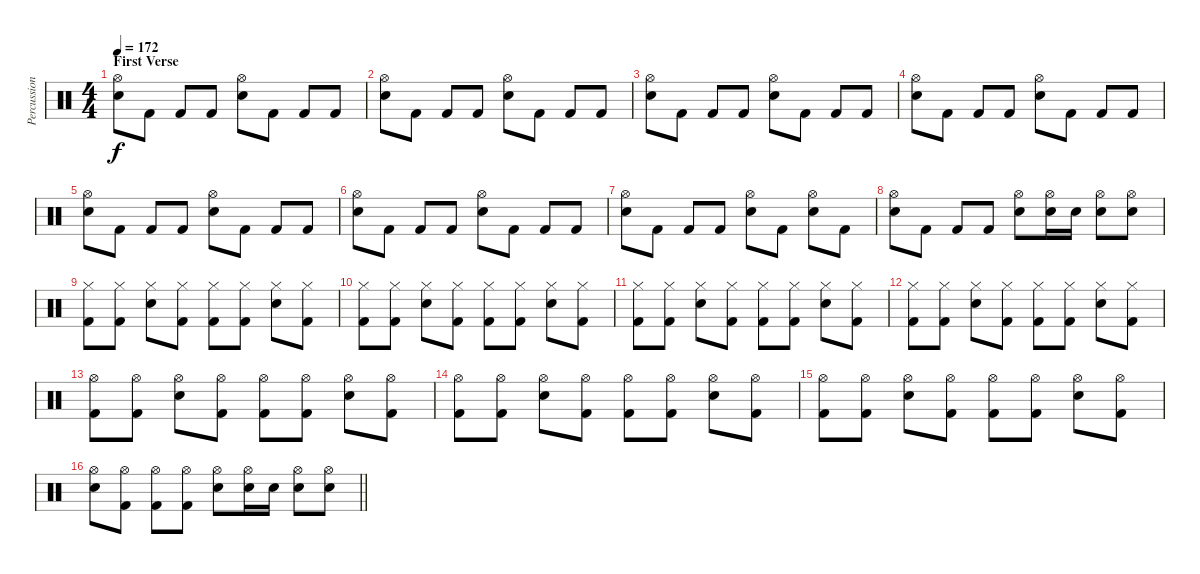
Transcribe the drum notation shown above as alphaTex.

\track ("Percussion" "Percussion") {instrument percussion}
\staff {score}
\articulation defaults
\ts (4 4)
\section ("" "First Verse")
\tempo 172
\clef neutral
\ks c
("Hi-Hat (open)" "Electric Snare (hit)").8{dy f} "Kick (hit) 2".8 "Kick (hit) 2".8 "Kick (hit) 2".8 ("Hi-Hat (open)" "Electric Snare (hit)").8 "Kick (hit) 2".8 "Kick (hit) 2".8 "Kick (hit) 2".8 |
("Hi-Hat (open)" "Electric Snare (hit)").8 "Kick (hit) 2".8 "Kick (hit) 2".8 "Kick (hit) 2".8 ("Hi-Hat (open)" "Electric Snare (hit)").8 "Kick (hit) 2".8 "Kick (hit) 2".8 "Kick (hit) 2".8 |
("Hi-Hat (open)" "Electric Snare (hit)").8 "Kick (hit) 2".8 "Kick (hit) 2".8 "Kick (hit) 2".8 ("Hi-Hat (open)" "Electric Snare (hit)").8 "Kick (hit) 2".8 "Kick (hit) 2".8 "Kick (hit) 2".8 |
("Hi-Hat (open)" "Electric Snare (hit)").8 "Kick (hit) 2".8 "Kick (hit) 2".8 "Kick (hit) 2".8 ("Hi-Hat (open)" "Electric Snare (hit)").8 "Kick (hit) 2".8 "Kick (hit) 2".8 "Kick (hit) 2".8 |
("Hi-Hat (open)" "Electric Snare (hit)").8 "Kick (hit) 2".8 "Kick (hit) 2".8 "Kick (hit) 2".8 ("Hi-Hat (open)" "Electric Snare (hit)").8 "Kick (hit) 2".8 "Kick (hit) 2".8 "Kick (hit) 2".8 |
("Hi-Hat (open)" "Electric Snare (hit)").8 "Kick (hit) 2".8 "Kick (hit) 2".8 "Kick (hit) 2".8 ("Hi-Hat (open)" "Electric Snare (hit)").8 "Kick (hit) 2".8 "Kick (hit) 2".8 "Kick (hit) 2".8 |
("Hi-Hat (open)" "Electric Snare (hit)").8 "Kick (hit) 2".8 "Kick (hit) 2".8 "Kick (hit) 2".8 ("Hi-Hat (open)" "Electric Snare (hit)").8 "Kick (hit) 2".8 ("Hi-Hat (open)" "Electric Snare (hit)").8 "Kick (hit) 2".8 |
("Hi-Hat (open)" "Electric Snare (hit)").8 "Kick (hit) 2".8 "Kick (hit) 2".8 "Kick (hit) 2".8 ("Hi-Hat (open)" "Electric Snare (hit)").8 ("Hi-Hat (open)" "Electric Snare (hit)").16 "Electric Snare (hit)".16 ("Hi-Hat (open)" "Electric Snare (hit)").8 ("Hi-Hat (open)" "Electric Snare (hit)").8 |
("Hi-Hat (closed)" "Kick (hit) 2").8 ("Hi-Hat (closed)" "Kick (hit) 2").8 ("Hi-Hat (closed)" "Electric Snare (hit)").8 ("Hi-Hat (closed)" "Kick (hit) 2").8 ("Hi-Hat (closed)" "Kick (hit) 2").8 ("Hi-Hat (closed)" "Kick (hit) 2").8 ("Hi-Hat (closed)" "Electric Snare (hit)").8 ("Hi-Hat (closed)" "Kick (hit) 2").8 |
("Hi-Hat (closed)" "Kick (hit) 2").8 ("Hi-Hat (closed)" "Kick (hit) 2").8 ("Hi-Hat (closed)" "Electric Snare (hit)").8 ("Hi-Hat (closed)" "Kick (hit) 2").8 ("Hi-Hat (closed)" "Kick (hit) 2").8 ("Hi-Hat (closed)" "Kick (hit) 2").8 ("Hi-Hat (closed)" "Electric Snare (hit)").8 ("Hi-Hat (closed)" "Kick (hit) 2").8 |
("Hi-Hat (closed)" "Kick (hit) 2").8 ("Hi-Hat (closed)" "Kick (hit) 2").8 ("Hi-Hat (closed)" "Electric Snare (hit)").8 ("Hi-Hat (closed)" "Kick (hit) 2").8 ("Hi-Hat (closed)" "Kick (hit) 2").8 ("Hi-Hat (closed)" "Kick (hit) 2").8 ("Hi-Hat (closed)" "Electric Snare (hit)").8 ("Hi-Hat (closed)" "Kick (hit) 2").8 |
("Hi-Hat (closed)" "Kick (hit) 2").8 ("Hi-Hat (closed)" "Kick (hit) 2").8 ("Hi-Hat (closed)" "Electric Snare (hit)").8 ("Hi-Hat (closed)" "Kick (hit) 2").8 ("Hi-Hat (closed)" "Kick (hit) 2").8 ("Hi-Hat (closed)" "Kick (hit) 2").8 ("Hi-Hat (closed)" "Electric Snare (hit)").8 ("Hi-Hat (closed)" "Kick (hit) 2").8 |
("Hi-Hat (open)" "Kick (hit) 2").8 ("Hi-Hat (open)" "Kick (hit) 2").8 ("Hi-Hat (open)" "Electric Snare (hit)").8 ("Hi-Hat (open)" "Kick (hit) 2").8 ("Hi-Hat (open)" "Kick (hit) 2").8 ("Hi-Hat (open)" "Kick (hit) 2").8 ("Hi-Hat (open)" "Electric Snare (hit)").8 ("Hi-Hat (open)" "Kick (hit) 2").8 |
("Hi-Hat (open)" "Kick (hit) 2").8 ("Hi-Hat (open)" "Kick (hit) 2").8 ("Hi-Hat (open)" "Electric Snare (hit)").8 ("Hi-Hat (open)" "Kick (hit) 2").8 ("Hi-Hat (open)" "Kick (hit) 2").8 ("Hi-Hat (open)" "Kick (hit) 2").8 ("Hi-Hat (open)" "Electric Snare (hit)").8 ("Hi-Hat (open)" "Kick (hit) 2").8 |
("Hi-Hat (open)" "Kick (hit) 2").8 ("Hi-Hat (open)" "Kick (hit) 2").8 ("Hi-Hat (open)" "Electric Snare (hit)").8 ("Hi-Hat (open)" "Kick (hit) 2").8 ("Hi-Hat (open)" "Kick (hit) 2").8 ("Hi-Hat (open)" "Kick (hit) 2").8 ("Hi-Hat (open)" "Electric Snare (hit)").8 ("Hi-Hat (open)" "Kick (hit) 2").8 |
\barLineRight lightlight
("Hi-Hat (open)" "Electric Snare (hit)").8 ("Hi-Hat (open)" "Kick (hit) 2").8 ("Hi-Hat (open)" "Kick (hit) 2").8 ("Hi-Hat (open)" "Kick (hit) 2").8 ("Hi-Hat (open)" "Electric Snare (hit)").8 ("Hi-Hat (open)" "Electric Snare (hit)").16 "Electric Snare (hit)".16 ("Hi-Hat (open)" "Electric Snare (hit)").8 ("Hi-Hat (open)" "Electric Snare (hit)").8
